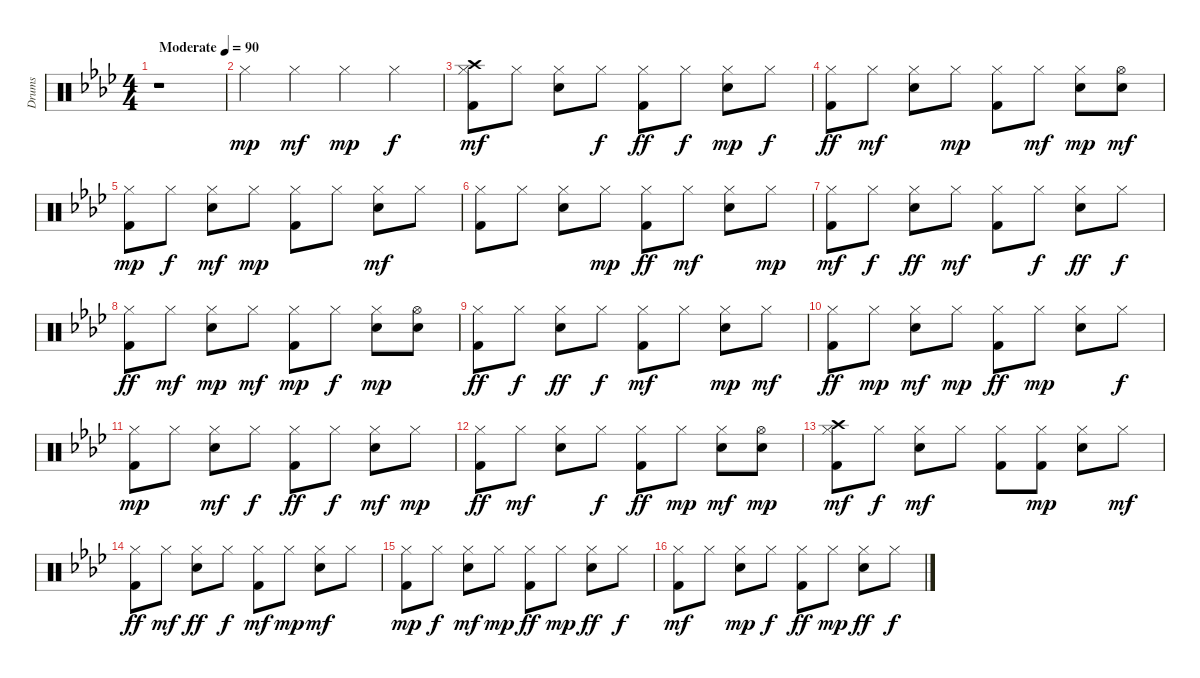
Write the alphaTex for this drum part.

\track ("Drums" "Drums") {instrument percussion}
\staff {score}
\articulation defaults
\ts (4 4)
\tempo (90 "Moderate")
\clef neutral
\ks ab
r.1{dy mp} |
"Hi-Hat (closed)".4 "Hi-Hat (closed)".4{dy mf} "Hi-Hat (closed)".4{dy mp} "Hi-Hat (closed)".4{dy f} |
("Kick (hit) 2" "Hi-Hat (closed)" "Crash high (hit)").8{dy mf} "Hi-Hat (closed)".8 ("Snare (hit) 2" "Hi-Hat (closed)").8 "Hi-Hat (closed)".8{dy f} ("Kick (hit) 2" "Hi-Hat (closed)").8{dy ff} "Hi-Hat (closed)".8{dy f} ("Snare (hit) 2" "Hi-Hat (closed)").8{dy mp} "Hi-Hat (closed)".8{dy f} |
("Kick (hit) 2" "Hi-Hat (closed)").8{dy ff} "Hi-Hat (closed)".8{dy mf} ("Snare (hit) 2" "Hi-Hat (closed)").8 "Hi-Hat (closed)".8{dy mp} ("Kick (hit) 2" "Hi-Hat (closed)").8 "Hi-Hat (closed)".8{dy mf} ("Snare (hit) 2" "Hi-Hat (closed)").8{dy mp} ("Snare (hit) 2" "Hi-Hat (open)").8{dy mf} |
("Kick (hit) 2" "Hi-Hat (closed)").8{dy mp} "Hi-Hat (closed)".8{dy f} ("Snare (hit) 2" "Hi-Hat (closed)").8{dy mf} "Hi-Hat (closed)".8{dy mp} ("Kick (hit) 2" "Hi-Hat (closed)").8 "Hi-Hat (closed)".8 ("Snare (hit) 2" "Hi-Hat (closed)").8{dy mf} "Hi-Hat (closed)".8 |
("Kick (hit) 2" "Hi-Hat (closed)").8 "Hi-Hat (closed)".8 ("Snare (hit) 2" "Hi-Hat (closed)").8 "Hi-Hat (closed)".8{dy mp} ("Kick (hit) 2" "Hi-Hat (closed)").8{dy ff} "Hi-Hat (closed)".8{dy mf} ("Snare (hit) 2" "Hi-Hat (closed)").8 "Hi-Hat (closed)".8{dy mp} |
("Kick (hit) 2" "Hi-Hat (closed)").8{dy mf} "Hi-Hat (closed)".8{dy f} ("Snare (hit) 2" "Hi-Hat (closed)").8{dy ff} "Hi-Hat (closed)".8{dy mf} ("Kick (hit) 2" "Hi-Hat (closed)").8 "Hi-Hat (closed)".8{dy f} ("Snare (hit) 2" "Hi-Hat (closed)").8{dy ff} "Hi-Hat (closed)".8{dy f} |
("Kick (hit) 2" "Hi-Hat (closed)").8{dy ff} "Hi-Hat (closed)".8{dy mf} ("Snare (hit) 2" "Hi-Hat (closed)").8{dy mp} "Hi-Hat (closed)".8{dy mf} ("Kick (hit) 2" "Hi-Hat (closed)").8{dy mp} "Hi-Hat (closed)".8{dy f} ("Snare (hit) 2" "Hi-Hat (closed)").8{dy mp} ("Snare (hit) 2" "Hi-Hat (open)").8 |
("Kick (hit) 2" "Hi-Hat (closed)").8{dy ff} "Hi-Hat (closed)".8{dy f} ("Snare (hit) 2" "Hi-Hat (closed)").8{dy ff} "Hi-Hat (closed)".8{dy f} ("Kick (hit) 2" "Hi-Hat (closed)").8{dy mf} "Hi-Hat (closed)".8 ("Snare (hit) 2" "Hi-Hat (closed)").8{dy mp} "Hi-Hat (closed)".8{dy mf} |
("Kick (hit) 2" "Hi-Hat (closed)").8{dy ff} "Hi-Hat (closed)".8{dy mp} ("Snare (hit) 2" "Hi-Hat (closed)").8{dy mf} "Hi-Hat (closed)".8{dy mp} ("Kick (hit) 2" "Hi-Hat (closed)").8{dy ff} "Hi-Hat (closed)".8{dy mp} ("Snare (hit) 2" "Hi-Hat (closed)").8 "Hi-Hat (closed)".8{dy f} |
("Kick (hit) 2" "Hi-Hat (closed)").8{dy mp} "Hi-Hat (closed)".8 ("Snare (hit) 2" "Hi-Hat (closed)").8{dy mf} "Hi-Hat (closed)".8{dy f} ("Kick (hit) 2" "Hi-Hat (closed)").8{dy ff} "Hi-Hat (closed)".8{dy f} ("Snare (hit) 2" "Hi-Hat (closed)").8{dy mf} "Hi-Hat (closed)".8{dy mp} |
("Kick (hit) 2" "Hi-Hat (closed)").8{dy ff} "Hi-Hat (closed)".8{dy mf} ("Snare (hit) 2" "Hi-Hat (closed)").8 "Hi-Hat (closed)".8{dy f} ("Kick (hit) 2" "Hi-Hat (closed)").8{dy ff} "Hi-Hat (closed)".8{dy mp} ("Snare (hit) 2" "Hi-Hat (closed)").8{dy mf} ("Snare (hit) 2" "Hi-Hat (open)").8{dy mp} |
("Kick (hit) 2" "Hi-Hat (closed)" "Crash high (hit)").8{dy mf} "Hi-Hat (closed)".8{dy f} ("Snare (hit) 2" "Hi-Hat (closed)").8{dy mf} "Hi-Hat (closed)".8 ("Kick (hit) 2" "Hi-Hat (closed)").8 ("Kick (hit) 2" "Hi-Hat (closed)").8{dy mp} ("Snare (hit) 2" "Hi-Hat (closed)").8 "Hi-Hat (closed)".8{dy mf} |
("Kick (hit) 2" "Hi-Hat (closed)").8{dy ff} "Hi-Hat (closed)".8{dy mf} ("Snare (hit) 2" "Hi-Hat (closed)").8{dy ff} "Hi-Hat (closed)".8{dy f} ("Kick (hit) 2" "Hi-Hat (closed)").8{dy mf} "Hi-Hat (closed)".8{dy mp} ("Snare (hit) 2" "Hi-Hat (closed)").8{dy mf} "Hi-Hat (closed)".8 |
("Kick (hit) 2" "Hi-Hat (closed)").8{dy mp} "Hi-Hat (closed)".8{dy f} ("Snare (hit) 2" "Hi-Hat (closed)").8{dy mf} "Hi-Hat (closed)".8{dy mp} ("Kick (hit) 2" "Hi-Hat (closed)").8{dy ff} "Hi-Hat (closed)".8{dy mp} ("Snare (hit) 2" "Hi-Hat (closed)").8{dy ff} "Hi-Hat (closed)".8{dy f} |
("Kick (hit) 2" "Hi-Hat (closed)").8{dy mf} "Hi-Hat (closed)".8 ("Snare (hit) 2" "Hi-Hat (closed)").8{dy mp} "Hi-Hat (closed)".8{dy f} ("Kick (hit) 2" "Hi-Hat (closed)").8{dy ff} "Hi-Hat (closed)".8{dy mp} ("Snare (hit) 2" "Hi-Hat (closed)").8{dy ff} "Hi-Hat (closed)".8{dy f}
